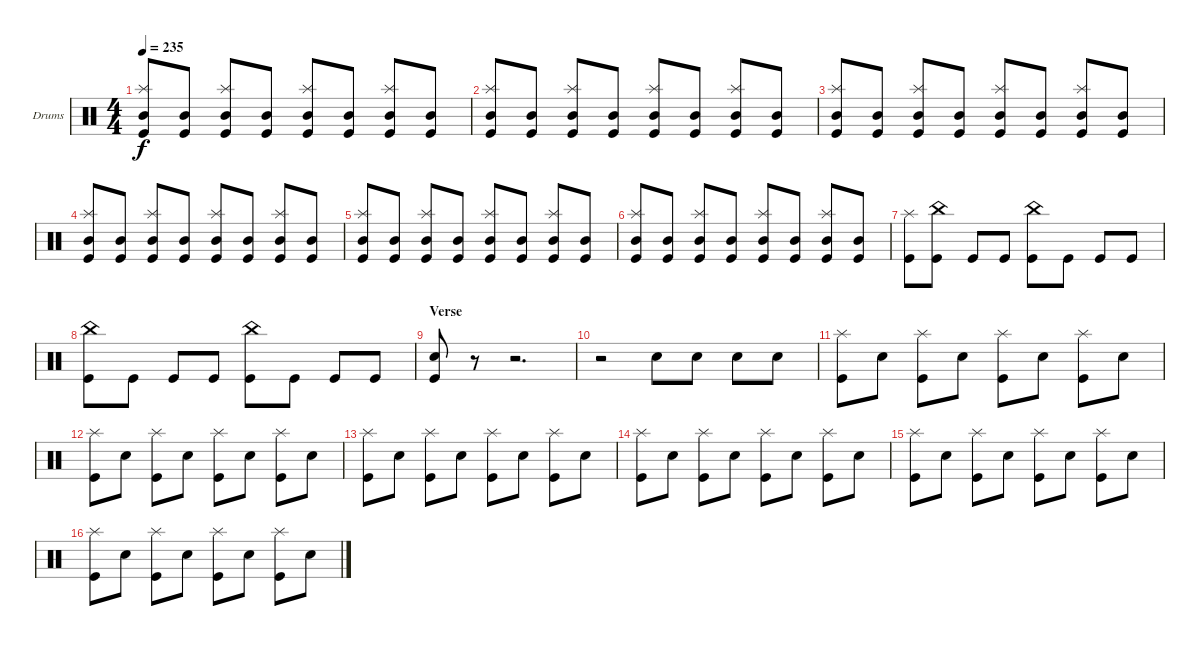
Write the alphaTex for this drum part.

\defaultSystemsLayout 4
\bracketExtendMode groupsimilarinstruments
\firstSystemTrackNameOrientation horizontal
\otherSystemsTrackNameOrientation horizontal
\track ("Drumkit" "Drums") {instrument percussion}
\staff {score}
\articulation defaults
\ts (4 4)
\tempo 235
\clef neutral
\ks c
("Kick (hit)" "Splash (hit)" "Mid Tom (hit)").8{dy f} ("Kick (hit)" "Mid Tom (hit)").8 ("Kick (hit)" "Splash (hit)" "Mid Tom (hit)").8 ("Kick (hit)" "Mid Tom (hit)").8 ("Kick (hit)" "Splash (hit)" "Mid Tom (hit)").8 ("Kick (hit)" "Mid Tom (hit)").8 ("Kick (hit)" "Splash (hit)" "Mid Tom (hit)").8 ("Kick (hit)" "Mid Tom (hit)").8 |
("Kick (hit)" "Splash (hit)" "Mid Tom (hit)").8 ("Kick (hit)" "Mid Tom (hit)").8 ("Kick (hit)" "Splash (hit)" "Mid Tom (hit)").8 ("Kick (hit)" "Mid Tom (hit)").8 ("Kick (hit)" "Splash (hit)" "Mid Tom (hit)").8 ("Kick (hit)" "Mid Tom (hit)").8 ("Kick (hit)" "Splash (hit)" "Mid Tom (hit)").8 ("Kick (hit)" "Mid Tom (hit)").8 |
("Kick (hit)" "Splash (hit)" "Mid Tom (hit)").8 ("Kick (hit)" "Mid Tom (hit)").8 ("Kick (hit)" "Splash (hit)" "Mid Tom (hit)").8 ("Kick (hit)" "Mid Tom (hit)").8 ("Kick (hit)" "Splash (hit)" "Mid Tom (hit)").8 ("Kick (hit)" "Mid Tom (hit)").8 ("Kick (hit)" "Splash (hit)" "Mid Tom (hit)").8 ("Kick (hit)" "Mid Tom (hit)").8 |
("Kick (hit)" "Splash (hit)" "Mid Tom (hit)").8 ("Kick (hit)" "Mid Tom (hit)").8 ("Kick (hit)" "Splash (hit)" "Mid Tom (hit)").8 ("Kick (hit)" "Mid Tom (hit)").8 ("Kick (hit)" "Splash (hit)" "Mid Tom (hit)").8 ("Kick (hit)" "Mid Tom (hit)").8 ("Kick (hit)" "Splash (hit)" "Mid Tom (hit)").8 ("Kick (hit)" "Mid Tom (hit)").8 |
("Kick (hit)" "Splash (hit)" "Mid Tom (hit)").8 ("Kick (hit)" "Mid Tom (hit)").8 ("Kick (hit)" "Splash (hit)" "Mid Tom (hit)").8 ("Kick (hit)" "Mid Tom (hit)").8 ("Kick (hit)" "Splash (hit)" "Mid Tom (hit)").8 ("Kick (hit)" "Mid Tom (hit)").8 ("Kick (hit)" "Splash (hit)" "Mid Tom (hit)").8 ("Kick (hit)" "Mid Tom (hit)").8 |
("Kick (hit)" "Splash (hit)" "Mid Tom (hit)").8 ("Kick (hit)" "Mid Tom (hit)").8 ("Kick (hit)" "Splash (hit)" "Mid Tom (hit)").8 ("Kick (hit)" "Mid Tom (hit)").8 ("Kick (hit)" "Splash (hit)" "Mid Tom (hit)").8 ("Kick (hit)" "Mid Tom (hit)").8 ("Kick (hit)" "Splash (hit)" "Mid Tom (hit)").8 ("Kick (hit)" "Mid Tom (hit)").8 |
("Kick (hit)" "Splash (hit)").8 ("Kick (hit)" "China (hit)").8 "Kick (hit)".8 "Kick (hit)".8 ("Kick (hit)" "China (hit)").8 "Kick (hit)".8 "Kick (hit)".8 "Kick (hit)".8 |
("Kick (hit)" "China (hit)").8 "Kick (hit)".8 "Kick (hit)".8 "Kick (hit)".8 ("Kick (hit)" "China (hit)").8 "Kick (hit)".8 "Kick (hit)".8 "Kick (hit)".8 |
\section ("" "Verse")
("Kick (hit)" "Snare (hit) 2").8 r.8 r.2{d} |
r.2 "Snare (hit) 2".8 "Snare (hit) 2".8 "Snare (hit) 2".8 "Snare (hit) 2".8 |
("Splash (hit)" "Kick (hit)").8 "Snare (hit) 2".8 ("Splash (hit)" "Kick (hit)").8 "Snare (hit) 2".8 ("Splash (hit)" "Kick (hit)").8 "Snare (hit) 2".8 ("Splash (hit)" "Kick (hit)").8 "Snare (hit) 2".8 |
("Splash (hit)" "Kick (hit)").8 "Snare (hit) 2".8 ("Splash (hit)" "Kick (hit)").8 "Snare (hit) 2".8 ("Splash (hit)" "Kick (hit)").8 "Snare (hit) 2".8 ("Splash (hit)" "Kick (hit)").8 "Snare (hit) 2".8 |
("Splash (hit)" "Kick (hit)").8 "Snare (hit) 2".8 ("Splash (hit)" "Kick (hit)").8 "Snare (hit) 2".8 ("Splash (hit)" "Kick (hit)").8 "Snare (hit) 2".8 ("Splash (hit)" "Kick (hit)").8 "Snare (hit) 2".8 |
("Splash (hit)" "Kick (hit)").8 "Snare (hit) 2".8 ("Splash (hit)" "Kick (hit)").8 "Snare (hit) 2".8 ("Splash (hit)" "Kick (hit)").8 "Snare (hit) 2".8 ("Splash (hit)" "Kick (hit)").8 "Snare (hit) 2".8 |
("Splash (hit)" "Kick (hit)").8 "Snare (hit) 2".8 ("Splash (hit)" "Kick (hit)").8 "Snare (hit) 2".8 ("Splash (hit)" "Kick (hit)").8 "Snare (hit) 2".8 ("Splash (hit)" "Kick (hit)").8 "Snare (hit) 2".8 |
("Splash (hit)" "Kick (hit)").8 "Snare (hit) 2".8 ("Splash (hit)" "Kick (hit)").8 "Snare (hit) 2".8 ("Splash (hit)" "Kick (hit)").8 "Snare (hit) 2".8 ("Splash (hit)" "Kick (hit)").8 "Snare (hit) 2".8
